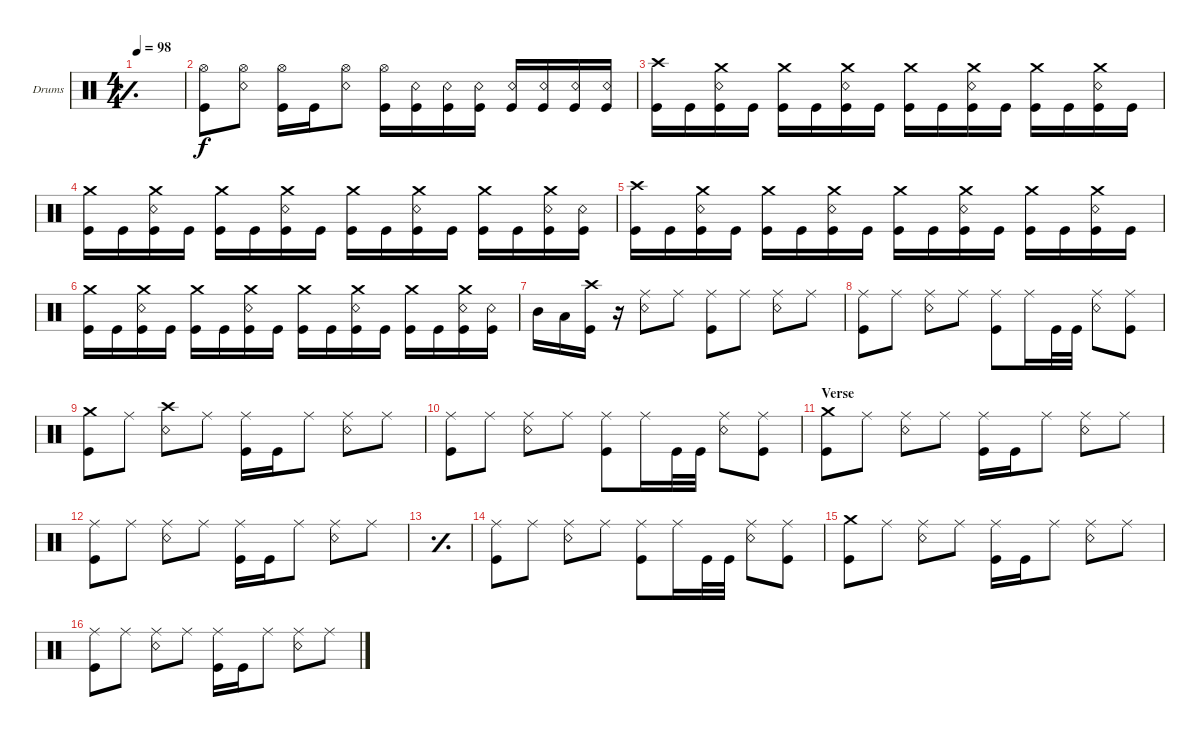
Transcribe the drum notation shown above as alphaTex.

\defaultSystemsLayout 4
\bracketExtendMode groupsimilarinstruments
\firstSystemTrackNameOrientation horizontal
\otherSystemsTrackNameOrientation horizontal
\track ("Drumkit" "Drums") {instrument percussion}
\staff {score}
\articulation defaults
\ts (4 4)
\tempo 98
\clef neutral
\simile simple
\ks c
|
("Kick (hit)" "Hi-Hat (open)").8 ("Snare (rim shot)" "Hi-Hat (open)").8 ("Kick (hit)" "Hi-Hat (open)").16 "Kick (hit)".16 ("Snare (rim shot)" "Hi-Hat (open)").8 ("Kick (hit)" "Hi-Hat (open)").16 ("Snare (rim shot)" "Kick (hit)").16 ("Snare (rim shot)" "Kick (hit)").16 ("Snare (rim shot)" "Kick (hit)").16 ("Snare (rim shot)" "Kick (hit)").16 ("Snare (rim shot)" "Kick (hit)").16 ("Snare (rim shot)" "Kick (hit)").16 ("Snare (rim shot)" "Kick (hit)").16 |
("Crash high (hit)" "Kick (hit)").16 "Kick (hit)".16 ("Kick (hit)" "Crash medium (hit)" "Snare (rim shot)").16 "Kick (hit)".16 ("Kick (hit)" "Crash medium (hit)").16 "Kick (hit)".16 ("Kick (hit)" "Crash medium (hit)" "Snare (rim shot)").16 "Kick (hit)".16 ("Kick (hit)" "Crash medium (hit)").16 "Kick (hit)".16 ("Kick (hit)" "Crash medium (hit)" "Snare (rim shot)").16 "Kick (hit)".16 ("Kick (hit)" "Crash medium (hit)").16 "Kick (hit)".16 ("Kick (hit)" "Crash medium (hit)" "Snare (rim shot)").16 "Kick (hit)".16 |
("Kick (hit)" "Crash medium (hit)").16 "Kick (hit)".16 ("Kick (hit)" "Crash medium (hit)" "Snare (rim shot)").16 "Kick (hit)".16 ("Kick (hit)" "Crash medium (hit)").16 "Kick (hit)".16 ("Kick (hit)" "Crash medium (hit)" "Snare (rim shot)").16 "Kick (hit)".16 ("Kick (hit)" "Crash medium (hit)").16 "Kick (hit)".16 ("Kick (hit)" "Crash medium (hit)" "Snare (rim shot)").16 "Kick (hit)".16 ("Kick (hit)" "Crash medium (hit)").16 "Kick (hit)".16 ("Kick (hit)" "Crash medium (hit)" "Snare (rim shot)").16 ("Kick (hit)" "Snare (rim shot)").16 |
("Crash high (hit)" "Kick (hit)").16 "Kick (hit)".16 ("Kick (hit)" "Crash medium (hit)" "Snare (rim shot)").16 "Kick (hit)".16 ("Kick (hit)" "Crash medium (hit)").16 "Kick (hit)".16 ("Kick (hit)" "Crash medium (hit)" "Snare (rim shot)").16 "Kick (hit)".16 ("Kick (hit)" "Crash medium (hit)").16 "Kick (hit)".16 ("Kick (hit)" "Crash medium (hit)" "Snare (rim shot)").16 "Kick (hit)".16 ("Kick (hit)" "Crash medium (hit)").16 "Kick (hit)".16 ("Kick (hit)" "Crash medium (hit)" "Snare (rim shot)").16 "Kick (hit)".16 |
("Kick (hit)" "Crash medium (hit)").16 "Kick (hit)".16 ("Kick (hit)" "Crash medium (hit)" "Snare (rim shot)").16 "Kick (hit)".16 ("Kick (hit)" "Crash medium (hit)").16 "Kick (hit)".16 ("Kick (hit)" "Crash medium (hit)" "Snare (rim shot)").16 "Kick (hit)".16 ("Kick (hit)" "Crash medium (hit)").16 "Kick (hit)".16 ("Kick (hit)" "Crash medium (hit)" "Snare (rim shot)").16 "Kick (hit)".16 ("Kick (hit)" "Crash medium (hit)").16 "Kick (hit)".16 ("Kick (hit)" "Crash medium (hit)" "Snare (rim shot)").16 ("Kick (hit)" "Snare (rim shot)").16 |
"Mid Tom (hit)".16 "Low Tom (hit)".16 ("Kick (hit)" "Crash high (hit)").16 r.16 ("Ride (middle)" "Snare (rim shot)").8 "Ride (middle)".8 ("Ride (middle)" "Kick (hit)").8 "Ride (middle)".8 ("Ride (middle)" "Snare (rim shot)").8 "Ride (middle)".8 |
("Ride (middle)" "Kick (hit)").8 "Ride (middle)".8 ("Ride (middle)" "Snare (rim shot)").8 "Ride (middle)".8 ("Ride (middle)" "Kick (hit)").8 "Ride (middle)".16 "Kick (hit)".32 "Kick (hit)".32 ("Ride (middle)" "Snare (rim shot)").8 ("Ride (middle)" "Kick (hit)").8 |
("Crash medium (hit)" "Kick (hit)").8 "Ride (middle)".8 ("Crash high (hit)" "Snare (rim shot)").8 "Ride (middle)".8 ("Ride (middle)" "Kick (hit)").16 "Kick (hit)".16 "Ride (middle)".8 ("Ride (middle)" "Snare (rim shot)").8 "Ride (middle)".8 |
("Ride (middle)" "Kick (hit)").8 "Ride (middle)".8 ("Ride (middle)" "Snare (rim shot)").8 "Ride (middle)".8 ("Ride (middle)" "Kick (hit)").8 "Ride (middle)".16 "Kick (hit)".32 "Kick (hit)".32 ("Ride (middle)" "Snare (rim shot)").8 ("Ride (middle)" "Kick (hit)").8 |
\section ("" "Verse")
("Crash medium (hit)" "Kick (hit)").8 "Ride (middle)".8 ("Snare (rim shot)" "Ride (middle)").8 "Ride (middle)".8 ("Ride (middle)" "Kick (hit)").16 "Kick (hit)".16 "Ride (middle)".8 ("Ride (middle)" "Snare (rim shot)").8 "Ride (middle)".8 |
("Kick (hit)" "Ride (middle)").8 "Ride (middle)".8 ("Snare (rim shot)" "Ride (middle)").8 "Ride (middle)".8 ("Ride (middle)" "Kick (hit)").16 "Kick (hit)".16 "Ride (middle)".8 ("Ride (middle)" "Snare (rim shot)").8 "Ride (middle)".8 |
\simile simple
|
\simile none
("Ride (middle)" "Kick (hit)").8 "Ride (middle)".8 ("Ride (middle)" "Snare (rim shot)").8 "Ride (middle)".8 ("Ride (middle)" "Kick (hit)").8 "Ride (middle)".16 "Kick (hit)".32 "Kick (hit)".32 ("Ride (middle)" "Snare (rim shot)").8 ("Ride (middle)" "Kick (hit)").8 |
("Crash medium (hit)" "Kick (hit)").8 "Ride (middle)".8 ("Snare (rim shot)" "Ride (middle)").8 "Ride (middle)".8 ("Ride (middle)" "Kick (hit)").16 "Kick (hit)".16 "Ride (middle)".8 ("Ride (middle)" "Snare (rim shot)").8 "Ride (middle)".8 |
("Kick (hit)" "Ride (middle)").8 "Ride (middle)".8 ("Snare (rim shot)" "Ride (middle)").8 "Ride (middle)".8 ("Ride (middle)" "Kick (hit)").16 "Kick (hit)".16 "Ride (middle)".8 ("Ride (middle)" "Snare (rim shot)").8 "Ride (middle)".8
